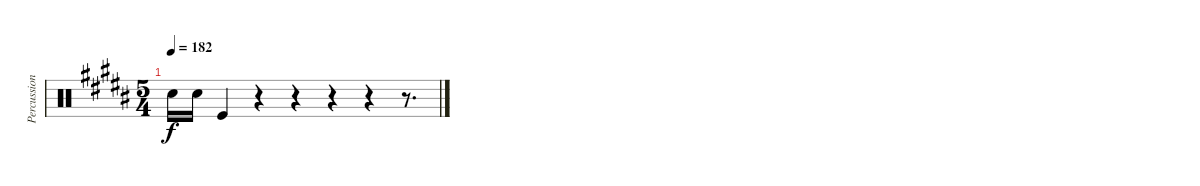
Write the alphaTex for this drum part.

\track ("Percussion" "Percussion") {instrument percussion}
\staff {score}
\articulation defaults
\ts (5 4)
\tempo 182
\clef neutral
\ks b "Snare (hit) 2".16{dy f} "Snare (hit) 2".16 "Kick (hit)".4
r.4 r.4 r.4 r.4 r.8{d}
